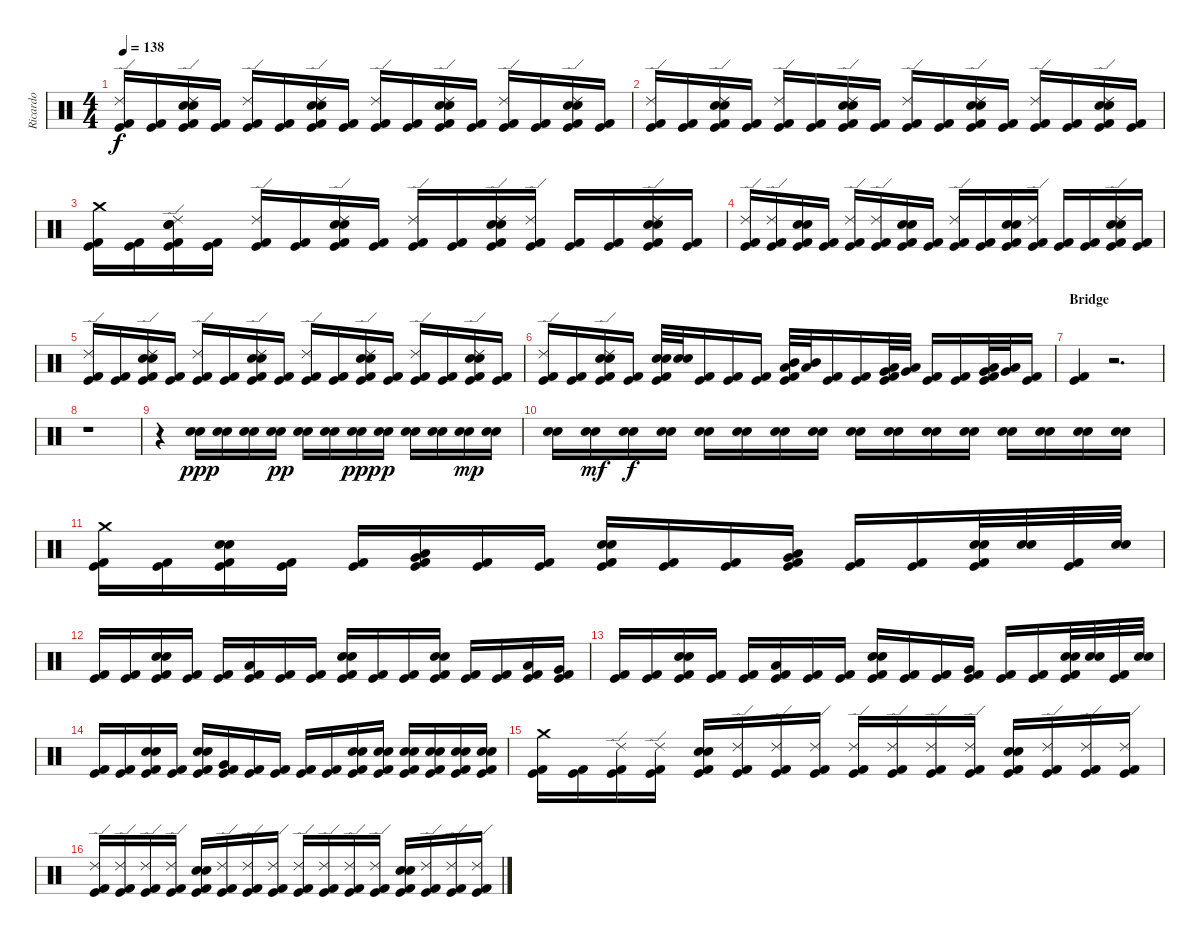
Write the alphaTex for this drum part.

\track ("Ricardo" "Ricardo") {instrument percussion}
\staff {score}
\articulation defaults
\ts (4 4)
\tempo 138
\clef neutral
\ks c
("Ride (edge) 2" "Kick (hit) 2" "Kick (hit)").16{dy f} ("Kick (hit) 2" "Kick (hit)").16 ("Electric Snare (hit)" "Snare (hit) 2" "Ride (edge) 2" "Kick (hit) 2" "Kick (hit)").16 ("Kick (hit) 2" "Kick (hit)").16 ("Ride (edge) 2" "Kick (hit) 2" "Kick (hit)").16 ("Kick (hit) 2" "Kick (hit)").16 ("Electric Snare (hit)" "Snare (hit) 2" "Ride (edge) 2" "Kick (hit) 2" "Kick (hit)").16 ("Kick (hit) 2" "Kick (hit)").16 ("Ride (edge) 2" "Kick (hit) 2" "Kick (hit)").16 ("Kick (hit) 2" "Kick (hit)").16 ("Electric Snare (hit)" "Snare (hit) 2" "Ride (edge) 2" "Kick (hit) 2" "Kick (hit)").16 ("Kick (hit) 2" "Kick (hit)").16 ("Ride (edge) 2" "Kick (hit) 2" "Kick (hit)").16 ("Kick (hit) 2" "Kick (hit)").16 ("Electric Snare (hit)" "Snare (hit) 2" "Ride (edge) 2" "Kick (hit) 2" "Kick (hit)").16 ("Kick (hit) 2" "Kick (hit)").16 |
("Ride (edge) 2" "Kick (hit) 2" "Kick (hit)").16 ("Kick (hit) 2" "Kick (hit)").16 ("Electric Snare (hit)" "Snare (hit) 2" "Ride (edge) 2" "Kick (hit) 2" "Kick (hit)").16 ("Kick (hit) 2" "Kick (hit)").16 ("Ride (edge) 2" "Kick (hit) 2" "Kick (hit)").16 ("Kick (hit) 2" "Kick (hit)").16 ("Electric Snare (hit)" "Snare (hit) 2" "Ride (edge) 2" "Kick (hit) 2" "Kick (hit)").16 ("Kick (hit) 2" "Kick (hit)").16 ("Ride (edge) 2" "Kick (hit) 2" "Kick (hit)").16 ("Kick (hit) 2" "Kick (hit)").16 ("Electric Snare (hit)" "Snare (hit) 2" "Ride (edge) 2" "Kick (hit) 2" "Kick (hit)").16 ("Kick (hit) 2" "Kick (hit)").16 ("Ride (edge) 2" "Kick (hit) 2" "Kick (hit)").16 ("Kick (hit) 2" "Kick (hit)").16 ("Electric Snare (hit)" "Snare (hit) 2" "Ride (edge) 2" "Kick (hit) 2" "Kick (hit)").16 ("Kick (hit) 2" "Kick (hit)").16 |
("Crash medium (hit)" "Kick (hit) 2" "Kick (hit)").16 ("Kick (hit) 2" "Kick (hit)").16 ("Electric Snare (hit)" "Snare (hit) 2" "Ride (edge) 2" "Kick (hit) 2" "Kick (hit)").16 ("Kick (hit) 2" "Kick (hit)").16 ("Ride (edge) 2" "Kick (hit) 2" "Kick (hit)").16 ("Kick (hit) 2" "Kick (hit)").16 ("Electric Snare (hit)" "Snare (hit) 2" "Ride (edge) 2" "Kick (hit) 2" "Kick (hit)").16 ("Kick (hit) 2" "Kick (hit)").16 ("Ride (edge) 2" "Kick (hit) 2" "Kick (hit)").16 ("Kick (hit) 2" "Kick (hit)").16 ("Electric Snare (hit)" "Snare (hit) 2" "Ride (edge) 2" "Kick (hit) 2" "Kick (hit)").16 ("Ride (edge) 2" "Kick (hit) 2" "Kick (hit)").16 ("Kick (hit) 2" "Kick (hit)").16 ("Kick (hit) 2" "Kick (hit)").16 ("Electric Snare (hit)" "Snare (hit) 2" "Ride (edge) 2" "Kick (hit) 2" "Kick (hit)").16 ("Kick (hit) 2" "Kick (hit)").16 |
("Ride (edge) 2" "Kick (hit) 2" "Kick (hit)").16 ("Ride (edge) 2" "Kick (hit) 2" "Kick (hit)").16 ("Electric Snare (hit)" "Snare (hit) 2" "Kick (hit) 2" "Kick (hit)").16 ("Kick (hit) 2" "Kick (hit)").16 ("Ride (edge) 2" "Kick (hit) 2" "Kick (hit)").16 ("Ride (edge) 2" "Kick (hit) 2" "Kick (hit)").16 ("Electric Snare (hit)" "Snare (hit) 2" "Kick (hit) 2" "Kick (hit)").16 ("Kick (hit) 2" "Kick (hit)").16 ("Ride (edge) 2" "Kick (hit) 2" "Kick (hit)").16 ("Kick (hit) 2" "Kick (hit)").16 ("Electric Snare (hit)" "Snare (hit) 2" "Kick (hit) 2" "Kick (hit)").16 ("Ride (edge) 2" "Kick (hit) 2" "Kick (hit)").16 ("Kick (hit) 2" "Kick (hit)").16 ("Kick (hit) 2" "Kick (hit)").16 ("Electric Snare (hit)" "Snare (hit) 2" "Ride (edge) 2" "Kick (hit) 2" "Kick (hit)").16 ("Kick (hit) 2" "Kick (hit)").16 |
("Ride (edge) 2" "Kick (hit) 2" "Kick (hit)").16 ("Kick (hit) 2" "Kick (hit)").16 ("Electric Snare (hit)" "Snare (hit) 2" "Ride (edge) 2" "Kick (hit) 2" "Kick (hit)").16 ("Kick (hit) 2" "Kick (hit)").16 ("Ride (edge) 2" "Kick (hit) 2" "Kick (hit)").16 ("Kick (hit) 2" "Kick (hit)").16 ("Electric Snare (hit)" "Snare (hit) 2" "Ride (edge) 2" "Kick (hit) 2" "Kick (hit)").16 ("Kick (hit) 2" "Kick (hit)").16 ("Ride (edge) 2" "Kick (hit) 2" "Kick (hit)").16 ("Kick (hit) 2" "Kick (hit)").16 ("Electric Snare (hit)" "Snare (hit) 2" "Ride (edge) 2" "Kick (hit) 2" "Kick (hit)").16 ("Kick (hit) 2" "Kick (hit)").16 ("Ride (edge) 2" "Kick (hit) 2" "Kick (hit)").16 ("Kick (hit) 2" "Kick (hit)").16 ("Electric Snare (hit)" "Snare (hit) 2" "Ride (edge) 2" "Kick (hit) 2" "Kick (hit)").16 ("Kick (hit) 2" "Kick (hit)").16 |
("Ride (edge) 2" "Kick (hit) 2" "Kick (hit)").16 ("Kick (hit) 2" "Kick (hit)").16 ("Electric Snare (hit)" "Snare (hit) 2" "Ride (edge) 2" "Kick (hit) 2" "Kick (hit)").16 ("Kick (hit) 2" "Kick (hit)").16 ("Electric Snare (hit)" "Snare (hit) 2" "Kick (hit) 2" "Kick (hit)").32 ("Snare (hit) 2" "Electric Snare (hit)").32 ("Kick (hit) 2" "Kick (hit)").16 ("Kick (hit) 2" "Kick (hit)").16 ("Kick (hit) 2" "Kick (hit)").16 ("Low Tom (hit)" "Mid Tom (hit)" "Kick (hit) 2" "Kick (hit)").32 ("Mid Tom (hit)" "Low Tom (hit)").32 ("Kick (hit) 2" "Kick (hit)").16 ("Kick (hit) 2" "Kick (hit)").16 ("Very Low Tom (hit)" "Low Tom (hit)" "Kick (hit) 2" "Kick (hit)").32 ("Low Tom (hit)" "Very Low Tom (hit)").32 ("Kick (hit) 2" "Kick (hit)").16 ("Kick (hit) 2" "Kick (hit)").16 ("Low Floor Tom (hit)" "Very Low Tom (hit)" "Kick (hit) 2" "Kick (hit)").32 ("Very Low Tom (hit)" "Low Floor Tom (hit)").32 ("Kick (hit) 2" "Kick (hit)").16 |
\section ("" "Bridge")
("Kick (hit)" "Kick (hit) 2").4 r.2{d} |
r.1 |
r.4 ("Snare (hit) 2" "Electric Snare (hit)").16{dy ppp} ("Electric Snare (hit)" "Snare (hit) 2").16 ("Electric Snare (hit)" "Snare (hit) 2").16 ("Electric Snare (hit)" "Snare (hit) 2").16{dy pp} ("Electric Snare (hit)" "Snare (hit) 2").16 ("Electric Snare (hit)" "Snare (hit) 2").16 ("Snare (hit) 2" "Electric Snare (hit)").16{dy ppp} ("Snare (hit) 2" "Electric Snare (hit)").16{dy p} ("Snare (hit) 2" "Electric Snare (hit)").16 ("Electric Snare (hit)" "Snare (hit) 2").16 ("Electric Snare (hit)" "Snare (hit) 2").16{dy mp} ("Electric Snare (hit)" "Snare (hit) 2").16 |
("Electric Snare (hit)" "Snare (hit) 2").16 ("Electric Snare (hit)" "Snare (hit) 2").16{dy mf} ("Electric Snare (hit)" "Snare (hit) 2").16{dy f} ("Electric Snare (hit)" "Snare (hit) 2").16 ("Electric Snare (hit)" "Snare (hit) 2").16 ("Electric Snare (hit)" "Snare (hit) 2").16 ("Electric Snare (hit)" "Snare (hit) 2").16 ("Electric Snare (hit)" "Snare (hit) 2").16 ("Electric Snare (hit)" "Snare (hit) 2").16 ("Electric Snare (hit)" "Snare (hit) 2").16 ("Electric Snare (hit)" "Snare (hit) 2").16 ("Electric Snare (hit)" "Snare (hit) 2").16 ("Electric Snare (hit)" "Snare (hit) 2").16 ("Electric Snare (hit)" "Snare (hit) 2").16 ("Electric Snare (hit)" "Snare (hit) 2").16 ("Electric Snare (hit)" "Snare (hit) 2").16 |
("Crash medium (hit)" "Kick (hit) 2" "Kick (hit)").16 ("Kick (hit) 2" "Kick (hit)").16 ("Electric Snare (hit)" "Snare (hit) 2" "Kick (hit) 2" "Kick (hit)").16 ("Kick (hit) 2" "Kick (hit)").16 ("Kick (hit) 2" "Kick (hit)").16 ("Low Tom (hit)" "Very Low Tom (hit)" "Kick (hit) 2" "Kick (hit)").16 ("Kick (hit) 2" "Kick (hit)").16 ("Kick (hit) 2" "Kick (hit)").16 ("Electric Snare (hit)" "Snare (hit) 2" "Kick (hit) 2" "Kick (hit)").16 ("Kick (hit) 2" "Kick (hit)").16 ("Kick (hit) 2" "Kick (hit)").16 ("Low Tom (hit)" "Very Low Tom (hit)" "Kick (hit) 2" "Kick (hit)").16 ("Kick (hit) 2" "Kick (hit)").16 ("Kick (hit) 2" "Kick (hit)").16 ("Electric Snare (hit)" "Snare (hit) 2" "Kick (hit) 2" "Kick (hit)").32 ("Electric Snare (hit)" "Snare (hit) 2").32 ("Kick (hit) 2" "Kick (hit)").32 ("Electric Snare (hit)" "Snare (hit) 2").32 |
("Kick (hit) 2" "Kick (hit)").16 ("Kick (hit) 2" "Kick (hit)").16 ("Electric Snare (hit)" "Snare (hit) 2" "Kick (hit) 2" "Kick (hit)").16 ("Kick (hit) 2" "Kick (hit)").16 ("Kick (hit) 2" "Kick (hit)").16 ("Low Tom (hit)" "Kick (hit) 2" "Kick (hit)").16 ("Kick (hit) 2" "Kick (hit)").16 ("Kick (hit) 2" "Kick (hit)").16 ("Electric Snare (hit)" "Snare (hit) 2" "Kick (hit) 2" "Kick (hit)").16 ("Kick (hit) 2" "Kick (hit)").16 ("Kick (hit) 2" "Kick (hit)").16 ("Electric Snare (hit)" "Snare (hit) 2" "Kick (hit) 2" "Kick (hit)").16 ("Kick (hit) 2" "Kick (hit)").16 ("Kick (hit) 2" "Kick (hit)").16 ("Low Tom (hit)" "Kick (hit) 2" "Kick (hit)").16 ("Very Low Tom (hit)" "Kick (hit) 2" "Kick (hit)").16 |
("Kick (hit) 2" "Kick (hit)").16 ("Kick (hit) 2" "Kick (hit)").16 ("Electric Snare (hit)" "Snare (hit) 2" "Kick (hit) 2" "Kick (hit)").16 ("Kick (hit) 2" "Kick (hit)").16 ("Kick (hit) 2" "Kick (hit)").16 ("Low Tom (hit)" "Kick (hit) 2" "Kick (hit)").16 ("Kick (hit) 2" "Kick (hit)").16 ("Kick (hit) 2" "Kick (hit)").16 ("Electric Snare (hit)" "Snare (hit) 2" "Kick (hit) 2" "Kick (hit)").16 ("Kick (hit) 2" "Kick (hit)").16 ("Kick (hit) 2" "Kick (hit)").16 ("Very Low Tom (hit)" "Kick (hit) 2" "Kick (hit)").16 ("Kick (hit) 2" "Kick (hit)").16 ("Kick (hit) 2" "Kick (hit)").16 ("Electric Snare (hit)" "Snare (hit) 2" "Kick (hit) 2" "Kick (hit)").32 ("Electric Snare (hit)" "Snare (hit) 2").32 ("Kick (hit) 2" "Kick (hit)").32 ("Electric Snare (hit)" "Snare (hit) 2").32 |
("Kick (hit) 2" "Kick (hit)").16 ("Kick (hit) 2" "Kick (hit)").16 ("Electric Snare (hit)" "Snare (hit) 2" "Kick (hit) 2" "Kick (hit)").16 ("Kick (hit) 2" "Kick (hit)").16 ("Electric Snare (hit)" "Snare (hit) 2" "Kick (hit) 2" "Kick (hit)").16 ("Very Low Tom (hit)" "Kick (hit) 2" "Kick (hit)").16 ("Kick (hit) 2" "Kick (hit)").16 ("Kick (hit) 2" "Kick (hit)").16 ("Kick (hit) 2" "Kick (hit)").16 ("Kick (hit) 2" "Kick (hit)").16 ("Snare (hit) 2" "Electric Snare (hit)" "Kick (hit) 2" "Kick (hit)").16 ("Snare (hit) 2" "Electric Snare (hit)" "Kick (hit) 2" "Kick (hit)").16 ("Snare (hit) 2" "Electric Snare (hit)" "Kick (hit) 2" "Kick (hit)").16 ("Snare (hit) 2" "Electric Snare (hit)" "Kick (hit) 2" "Kick (hit)").16 ("Snare (hit) 2" "Electric Snare (hit)" "Kick (hit) 2" "Kick (hit)").16 ("Snare (hit) 2" "Electric Snare (hit)" "Kick (hit) 2" "Kick (hit)").16 |
("Crash medium (hit)" "Kick (hit) 2" "Kick (hit)").16 ("Kick (hit) 2" "Kick (hit)").16 ("Ride (edge) 2" "Kick (hit) 2" "Kick (hit)").16 ("Ride (edge) 2" "Kick (hit) 2" "Kick (hit)").16 ("Electric Snare (hit)" "Snare (hit) 2" "Kick (hit) 2" "Kick (hit)").16 ("Ride (edge) 2" "Kick (hit) 2" "Kick (hit)").16 ("Ride (edge) 2" "Kick (hit) 2" "Kick (hit)").16 ("Ride (edge) 2" "Kick (hit) 2" "Kick (hit)").16 ("Ride (edge) 2" "Kick (hit) 2" "Kick (hit)").16 ("Ride (edge) 2" "Kick (hit) 2" "Kick (hit)").16 ("Ride (edge) 2" "Kick (hit) 2" "Kick (hit)").16 ("Ride (edge) 2" "Kick (hit) 2" "Kick (hit)").16 ("Electric Snare (hit)" "Snare (hit) 2" "Kick (hit) 2" "Kick (hit)").16 ("Ride (edge) 2" "Kick (hit) 2" "Kick (hit)").16 ("Ride (edge) 2" "Kick (hit) 2" "Kick (hit)").16 ("Ride (edge) 2" "Kick (hit) 2" "Kick (hit)").16 |
("Ride (edge) 2" "Kick (hit) 2" "Kick (hit)").16 ("Ride (edge) 2" "Kick (hit) 2" "Kick (hit)").16 ("Ride (edge) 2" "Kick (hit) 2" "Kick (hit)").16 ("Ride (edge) 2" "Kick (hit) 2" "Kick (hit)").16 ("Electric Snare (hit)" "Snare (hit) 2" "Kick (hit) 2" "Kick (hit)").16 ("Ride (edge) 2" "Kick (hit) 2" "Kick (hit)").16 ("Ride (edge) 2" "Kick (hit) 2" "Kick (hit)").16 ("Ride (edge) 2" "Kick (hit) 2" "Kick (hit)").16 ("Ride (edge) 2" "Kick (hit) 2" "Kick (hit)").16 ("Ride (edge) 2" "Kick (hit) 2" "Kick (hit)").16 ("Ride (edge) 2" "Kick (hit) 2" "Kick (hit)").16 ("Ride (edge) 2" "Kick (hit) 2" "Kick (hit)").16 ("Electric Snare (hit)" "Snare (hit) 2" "Kick (hit) 2" "Kick (hit)").16 ("Ride (edge) 2" "Kick (hit) 2" "Kick (hit)").16 ("Ride (edge) 2" "Kick (hit) 2" "Kick (hit)").16 ("Ride (edge) 2" "Kick (hit) 2" "Kick (hit)").16
